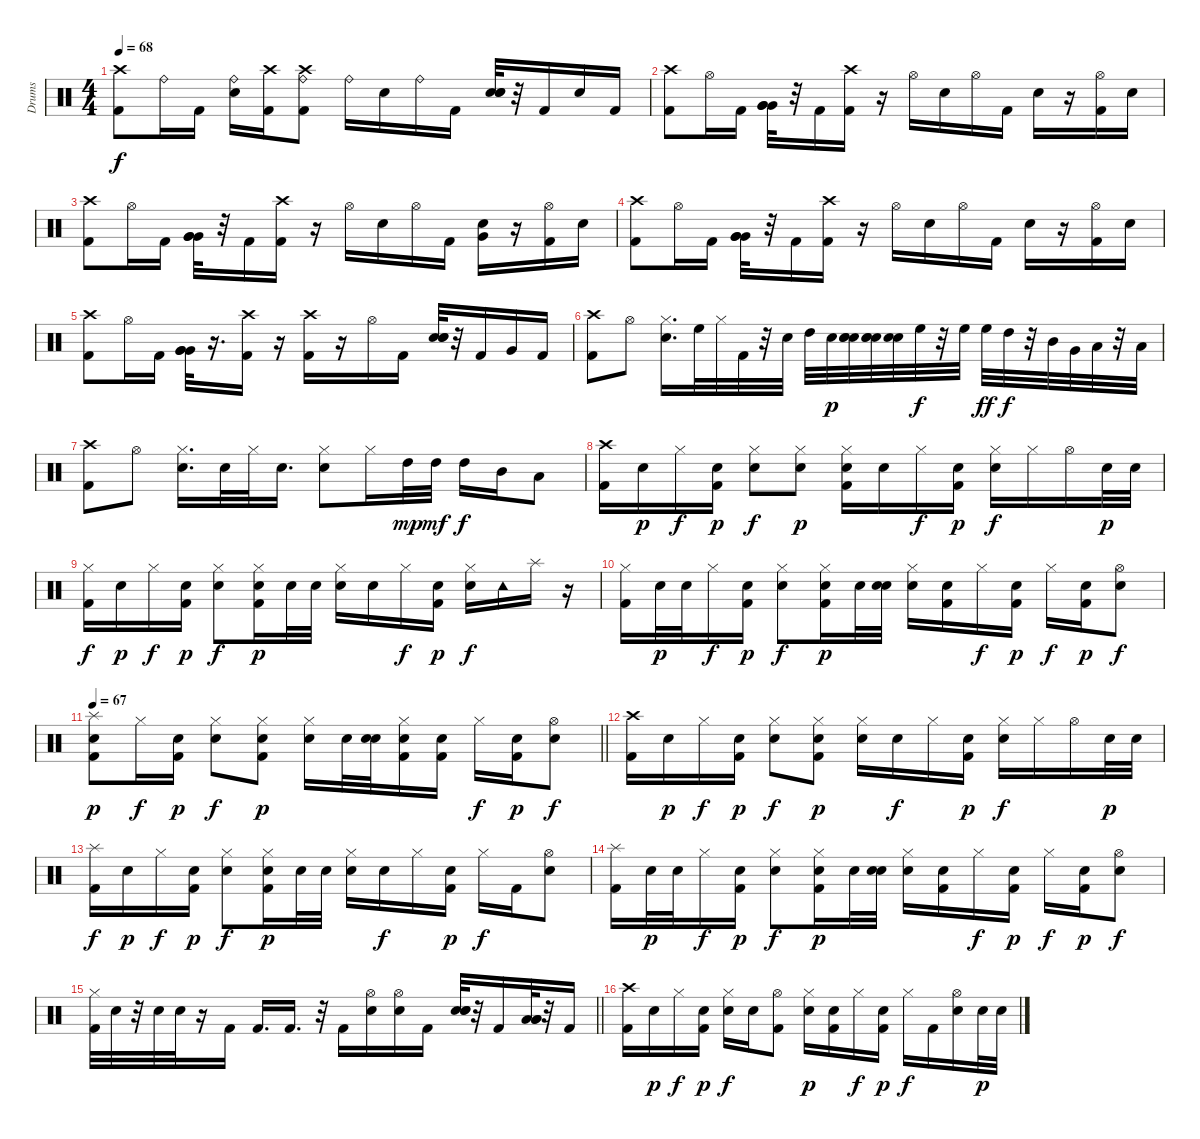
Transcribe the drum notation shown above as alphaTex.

\track ("Drums" "Drums") {instrument percussion}
\staff {score}
\articulation defaults
\ts (4 4)
\tempo 68
\clef neutral
\ks c
("Kick (hit) 2" "Crash high (hit)").8{dy f} "Ride (bell)".16 "Kick (hit) 2".16 ("Ride (bell)" "Electric Snare (hit)").16 ("Kick (hit) 2" "Crash high (hit)").16 ("Ride (bell)" "Crash high (hit)" "Kick (hit) 2").8 "Ride (bell)".16 "Electric Snare (hit)".16 "Ride (bell)".16 "Kick (hit) 2".16 ("Electric Snare (hit)" "Electric Snare (hit)" "Electric Snare (hit)").32 r.32 "Kick (hit) 2".16 "Electric Snare (hit)".16 "Kick (hit) 2".16 |
("Crash high (hit)" "Kick (hit) 2").8 "Hi-Hat (open)".16 "Kick (hit) 2".16 ("Very Low Tom (hit)" "Very Low Tom (hit)" "Very Low Tom (hit)").32 r.32 "Kick (hit) 2".16 ("Crash high (hit)" "Kick (hit) 2").16 r.16 "Hi-Hat (open)".16 "Electric Snare (hit)".16 "Hi-Hat (open)".16 "Kick (hit) 2".16 "Electric Snare (hit)".16 r.16 ("Kick (hit) 2" "Hi-Hat (open)").16 "Electric Snare (hit)".16 |
("Kick (hit) 2" "Crash high (hit)").8 "Hi-Hat (open)".16 "Kick (hit) 2".16 ("Very Low Tom (hit)" "Very Low Tom (hit)" "Very Low Tom (hit)").32 r.32 "Kick (hit) 2".16 ("Crash high (hit)" "Kick (hit) 2").16 r.16 "Hi-Hat (open)".16 "Electric Snare (hit)".16 "Hi-Hat (open)".16 "Kick (hit) 2".16 ("Electric Snare (hit)" "Very Low Tom (hit)").16 r.16 ("Kick (hit) 2" "Hi-Hat (open)").16 "Electric Snare (hit)".16 |
("Kick (hit) 2" "Crash high (hit)").8 "Hi-Hat (open)".16 "Kick (hit) 2".16 ("Very Low Tom (hit)" "Very Low Tom (hit)" "Very Low Tom (hit)").32 r.32 "Kick (hit) 2".16 ("Crash high (hit)" "Kick (hit) 2").16 r.16 "Hi-Hat (open)".16 "Electric Snare (hit)".16 "Hi-Hat (open)".16 "Kick (hit) 2".16 "Electric Snare (hit)".16 r.16 ("Kick (hit) 2" "Hi-Hat (open)").16 "Electric Snare (hit)".16 |
("Crash high (hit)" "Kick (hit) 2").8 "Hi-Hat (open)".16 "Kick (hit) 2".16 ("Very Low Tom (hit)" "Very Low Tom (hit)" "Very Low Tom (hit)").32 r.16{d} ("Crash high (hit)" "Kick (hit) 2").16 r.16 ("Crash high (hit)" "Kick (hit) 2").16 r.16 "Hi-Hat (open)".16 "Kick (hit) 2".16 ("Electric Snare (hit)" "Electric Snare (hit)" "Electric Snare (hit)").32 r.32 "Kick (hit) 2".16 "Very Low Tom (hit)".16 "Kick (hit) 2".16 |
("Crash high (hit)" "Kick (hit) 2").8 "Hi-Hat (open)".8 ("Electric Snare (hit)" "Hi-Hat (closed)").16{d} "High Floor Tom (hit)".32 "Hi-Hat (closed)".32 "Kick (hit) 2".32 r.32 "Electric Snare (hit)".32 "High Tom (hit)".32 "Electric Snare (hit)".32{dy p} ("Electric Snare (hit)" "Electric Snare (hit)" "Electric Snare (hit)").32 ("Electric Snare (hit)" "Electric Snare (hit)" "Electric Snare (hit)").32 ("Electric Snare (hit)" "Electric Snare (hit)").32 "High Floor Tom (hit)".32{dy f} r.32 "High Floor Tom (hit)".32 "High Floor Tom (hit)".32{dy ff} "High Tom (hit)".32{dy f} r.32 "Mid Tom (hit)".32 "Very Low Tom (hit)".32 "Low Floor Tom (hit)".32 r.32 "Low Floor Tom (hit)".32 |
("Crash high (hit)" "Kick (hit) 2").8 "Hi-Hat (open)".8 ("Electric Snare (hit)" "Hi-Hat (closed)").16{d} "Electric Snare (hit)".32 "Hi-Hat (closed)".32 "Electric Snare (hit)".16{d} ("Electric Snare (hit)" "Hi-Hat (closed)").8 "Hi-Hat (closed)".16 "High Tom (hit)".32{dy mp} "High Tom (hit)".32{dy mf} "High Tom (hit)".16{dy f} "Mid Tom (hit)".16 "Low Tom (hit)".8 |
("Crash high (hit)" "Kick (hit) 2").16{volume 8} "Electric Snare (hit)".16{dy p} "Hi-Hat (closed)".16{dy f} ("Kick (hit) 2" "Electric Snare (hit)").16{dy p} ("Hi-Hat (closed)" "Electric Snare (hit)").8{dy f} ("Hi-Hat (closed)" "Electric Snare (hit)").8{dy p} ("Hi-Hat (closed)" "Kick (hit) 2" "Electric Snare (hit)").16 "Electric Snare (hit)".16 "Hi-Hat (closed)".16{dy f} ("Kick (hit) 2" "Electric Snare (hit)").16{dy p} ("Electric Snare (hit)" "Hi-Hat (closed)").16{dy f} "Hi-Hat (closed)".16 "Hi-Hat (open)".16 "Electric Snare (hit)".32{dy p} "Electric Snare (hit)".32 |
("Kick (hit) 2" "Hi-Hat (closed)").16{dy f} "Electric Snare (hit)".16{dy p} "Hi-Hat (closed)".16{dy f} ("Kick (hit) 2" "Electric Snare (hit)").16{dy p} ("Hi-Hat (closed)" "Electric Snare (hit)").8{dy f} ("Hi-Hat (closed)" "Kick (hit) 2" "Electric Snare (hit)").16{dy p} "Electric Snare (hit)".32 "Electric Snare (hit)".32 ("Hi-Hat (closed)" "Electric Snare (hit)").16 "Electric Snare (hit)".16 "Hi-Hat (closed)".16{dy f} ("Kick (hit) 2" "Electric Snare (hit)").16{dy p} ("Electric Snare (hit)" "Hi-Hat (closed)").16{dy f} "Tambourine (hit)".16 "Splash (hit)".16 r.16 |
("Hi-Hat (closed)" "Kick (hit) 2").16 "Electric Snare (hit)".32{dy p} "Electric Snare (hit)".32 "Hi-Hat (closed)".16{dy f} ("Kick (hit) 2" "Electric Snare (hit)").16{dy p} ("Hi-Hat (closed)" "Electric Snare (hit)").8{dy f} ("Hi-Hat (closed)" "Kick (hit) 2" "Electric Snare (hit)").16{dy p} "Electric Snare (hit)".32 ("Electric Snare (hit)" "Electric Snare (hit)").32 ("Hi-Hat (closed)" "Electric Snare (hit)").16 ("Kick (hit) 2" "Electric Snare (hit)").16 "Hi-Hat (closed)".16{dy f} ("Kick (hit) 2" "Electric Snare (hit)").16{dy p} "Hi-Hat (closed)".16{dy f} ("Kick (hit) 2" "Electric Snare (hit)").16{dy p} ("Hi-Hat (open)" "Electric Snare (hit)").8{dy f} |
\tempo 67
\barLineRight lightlight
("Kick (hit) 2" "Electric Snare (hit)" "Splash (hit)").8{dy p} "Hi-Hat (closed)".16{dy f} ("Kick (hit) 2" "Electric Snare (hit)").16{dy p} ("Hi-Hat (closed)" "Electric Snare (hit)").8{dy f} ("Hi-Hat (closed)" "Kick (hit) 2" "Electric Snare (hit)").8{dy p} ("Hi-Hat (closed)" "Electric Snare (hit)").16 "Electric Snare (hit)".32 ("Electric Snare (hit)" "Electric Snare (hit)").32 ("Hi-Hat (closed)" "Kick (hit) 2" "Electric Snare (hit)").16 ("Kick (hit) 2" "Electric Snare (hit)").16 "Hi-Hat (closed)".16{dy f} ("Kick (hit) 2" "Electric Snare (hit)").16{dy p} ("Hi-Hat (open)" "Electric Snare (hit)").8{dy f} |
("Kick (hit) 2" "Crash high (hit)").16 "Electric Snare (hit)".16{dy p} "Hi-Hat (closed)".16{dy f} ("Kick (hit) 2" "Electric Snare (hit)").16{dy p} ("Hi-Hat (closed)" "Electric Snare (hit)").8{dy f} ("Hi-Hat (closed)" "Electric Snare (hit)" "Kick (hit) 2").8{dy p} ("Hi-Hat (closed)" "Electric Snare (hit)").16 "Electric Snare (hit)".16{dy f} "Hi-Hat (closed)".16 ("Kick (hit) 2" "Electric Snare (hit)").16{dy p} ("Electric Snare (hit)" "Hi-Hat (closed)").16{dy f} "Hi-Hat (closed)".16 "Hi-Hat (open)".16 "Electric Snare (hit)".32{dy p} "Electric Snare (hit)".32 |
("Kick (hit) 2" "Splash (hit)").16{dy f} "Electric Snare (hit)".16{dy p} "Hi-Hat (closed)".16{dy f} ("Kick (hit) 2" "Electric Snare (hit)").16{dy p} ("Hi-Hat (closed)" "Electric Snare (hit)").8{dy f} ("Hi-Hat (closed)" "Kick (hit) 2" "Electric Snare (hit)").16{dy p} "Electric Snare (hit)".32 "Electric Snare (hit)".32 ("Hi-Hat (closed)" "Electric Snare (hit)").16 "Electric Snare (hit)".16{dy f} "Hi-Hat (closed)".16 ("Kick (hit) 2" "Electric Snare (hit)").16{dy p} "Hi-Hat (closed)".16{dy f} "Kick (hit) 2".16 ("Electric Snare (hit)" "Hi-Hat (open)").8 |
("Kick (hit) 2" "Splash (hit)").16 "Electric Snare (hit)".32{dy p} "Electric Snare (hit)".32 "Hi-Hat (closed)".16{dy f} ("Kick (hit) 2" "Electric Snare (hit)").16{dy p} ("Hi-Hat (closed)" "Electric Snare (hit)").8{dy f} ("Hi-Hat (closed)" "Kick (hit) 2" "Electric Snare (hit)").16{dy p} "Electric Snare (hit)".32 ("Electric Snare (hit)" "Electric Snare (hit)").32 ("Hi-Hat (closed)" "Electric Snare (hit)").16 ("Kick (hit) 2" "Electric Snare (hit)").16 "Hi-Hat (closed)".16{dy f} ("Kick (hit) 2" "Electric Snare (hit)").16{dy p} "Hi-Hat (closed)".16{dy f} ("Kick (hit) 2" "Electric Snare (hit)").16{dy p} ("Hi-Hat (open)" "Electric Snare (hit)").8{dy f} |
\barLineRight lightlight
("Kick (hit) 2" "Hi-Hat (closed)").32 "Electric Snare (hit)".32 r.32 "Electric Snare (hit)".32 "Electric Snare (hit)".32 r.16 "Kick (hit) 2".16 "Kick (hit) 2".16{d} "Kick (hit) 2".16{d} r.32 "Kick (hit) 2".16 ("Electric Snare (hit)" "Hi-Hat (open)").16 ("Electric Snare (hit)" "Hi-Hat (open)").16 "Kick (hit) 2".16 ("Electric Snare (hit)" "Electric Snare (hit)" "Electric Snare (hit)").32 r.32 "Kick (hit) 2".16 ("Low Tom (hit)" "Low Tom (hit)" "Low Tom (hit)").32 r.32 "Kick (hit) 2".16 |
("Crash high (hit)" "Kick (hit) 2").16 "Electric Snare (hit)".16{dy p} "Hi-Hat (closed)".16{dy f} ("Kick (hit) 2" "Electric Snare (hit)").16{dy p} ("Hi-Hat (closed)" "Electric Snare (hit)").16{dy f} "Electric Snare (hit)".16 ("Hi-Hat (open)" "Kick (hit) 2").8 ("Hi-Hat (closed)" "Electric Snare (hit)").16{dy p} ("Electric Snare (hit)" "Kick (hit) 2").16 "Hi-Hat (closed)".16{dy f} ("Kick (hit) 2" "Electric Snare (hit)").16{dy p} "Hi-Hat (closed)".16{dy f} "Kick (hit) 2".16 ("Hi-Hat (open)" "Electric Snare (hit)").16 "Electric Snare (hit)".32{dy p} "Electric Snare (hit)".32
